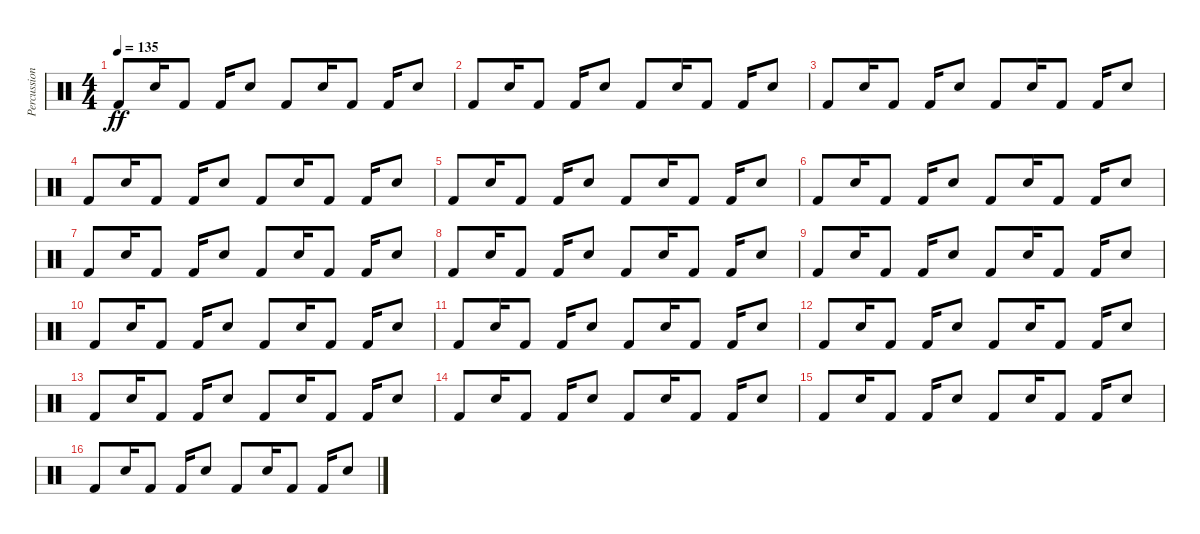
\track ("Percussion" "Percussion") {instrument percussion}
\staff {score}
\articulation defaults
\ts (4 4)
\tempo 135
\clef neutral
\ks c "Kick (hit) 2".8{dy ff} "Electric Snare (hit)".16 "Kick (hit) 2".8 "Kick (hit) 2".16 "Electric Snare (hit)".8 "Kick (hit) 2".8 "Electric Snare (hit)".16 "Kick (hit) 2".8 "Kick (hit) 2".16 "Electric Snare (hit)".8
|
"Kick (hit) 2".8 "Electric Snare (hit)".16 "Kick (hit) 2".8 "Kick (hit) 2".16 "Electric Snare (hit)".8 "Kick (hit) 2".8 "Electric Snare (hit)".16 "Kick (hit) 2".8 "Kick (hit) 2".16 "Electric Snare (hit)".8 |
"Kick (hit) 2".8 "Electric Snare (hit)".16 "Kick (hit) 2".8 "Kick (hit) 2".16 "Electric Snare (hit)".8 "Kick (hit) 2".8 "Electric Snare (hit)".16 "Kick (hit) 2".8 "Kick (hit) 2".16 "Electric Snare (hit)".8 |
"Kick (hit) 2".8 "Electric Snare (hit)".16 "Kick (hit) 2".8 "Kick (hit) 2".16 "Electric Snare (hit)".8 "Kick (hit) 2".8 "Electric Snare (hit)".16 "Kick (hit) 2".8 "Kick (hit) 2".16 "Electric Snare (hit)".8 |
"Kick (hit) 2".8 "Electric Snare (hit)".16 "Kick (hit) 2".8 "Kick (hit) 2".16 "Electric Snare (hit)".8 "Kick (hit) 2".8 "Electric Snare (hit)".16 "Kick (hit) 2".8 "Kick (hit) 2".16 "Electric Snare (hit)".8 |
"Kick (hit) 2".8 "Electric Snare (hit)".16 "Kick (hit) 2".8 "Kick (hit) 2".16 "Electric Snare (hit)".8 "Kick (hit) 2".8 "Electric Snare (hit)".16 "Kick (hit) 2".8 "Kick (hit) 2".16 "Electric Snare (hit)".8 |
"Kick (hit) 2".8 "Electric Snare (hit)".16 "Kick (hit) 2".8 "Kick (hit) 2".16 "Electric Snare (hit)".8 "Kick (hit) 2".8 "Electric Snare (hit)".16 "Kick (hit) 2".8 "Kick (hit) 2".16 "Electric Snare (hit)".8 |
"Kick (hit) 2".8 "Electric Snare (hit)".16 "Kick (hit) 2".8 "Kick (hit) 2".16 "Electric Snare (hit)".8 "Kick (hit) 2".8 "Electric Snare (hit)".16 "Kick (hit) 2".8 "Kick (hit) 2".16 "Electric Snare (hit)".8 |
"Kick (hit) 2".8 "Electric Snare (hit)".16 "Kick (hit) 2".8 "Kick (hit) 2".16 "Electric Snare (hit)".8 "Kick (hit) 2".8 "Electric Snare (hit)".16 "Kick (hit) 2".8 "Kick (hit) 2".16 "Electric Snare (hit)".8 |
"Kick (hit) 2".8 "Electric Snare (hit)".16 "Kick (hit) 2".8 "Kick (hit) 2".16 "Electric Snare (hit)".8 "Kick (hit) 2".8 "Electric Snare (hit)".16 "Kick (hit) 2".8 "Kick (hit) 2".16 "Electric Snare (hit)".8 |
"Kick (hit) 2".8 "Electric Snare (hit)".16 "Kick (hit) 2".8 "Kick (hit) 2".16 "Electric Snare (hit)".8 "Kick (hit) 2".8 "Electric Snare (hit)".16 "Kick (hit) 2".8 "Kick (hit) 2".16 "Electric Snare (hit)".8 |
"Kick (hit) 2".8 "Electric Snare (hit)".16 "Kick (hit) 2".8 "Kick (hit) 2".16 "Electric Snare (hit)".8 "Kick (hit) 2".8 "Electric Snare (hit)".16 "Kick (hit) 2".8 "Kick (hit) 2".16 "Electric Snare (hit)".8 |
"Kick (hit) 2".8 "Electric Snare (hit)".16 "Kick (hit) 2".8 "Kick (hit) 2".16 "Electric Snare (hit)".8 "Kick (hit) 2".8 "Electric Snare (hit)".16 "Kick (hit) 2".8 "Kick (hit) 2".16 "Electric Snare (hit)".8 |
"Kick (hit) 2".8 "Electric Snare (hit)".16 "Kick (hit) 2".8 "Kick (hit) 2".16 "Electric Snare (hit)".8 "Kick (hit) 2".8 "Electric Snare (hit)".16 "Kick (hit) 2".8 "Kick (hit) 2".16 "Electric Snare (hit)".8 |
"Kick (hit) 2".8 "Electric Snare (hit)".16 "Kick (hit) 2".8 "Kick (hit) 2".16 "Electric Snare (hit)".8 "Kick (hit) 2".8 "Electric Snare (hit)".16 "Kick (hit) 2".8 "Kick (hit) 2".16 "Electric Snare (hit)".8 |
"Kick (hit) 2".8 "Electric Snare (hit)".16 "Kick (hit) 2".8 "Kick (hit) 2".16 "Electric Snare (hit)".8 "Kick (hit) 2".8 "Electric Snare (hit)".16 "Kick (hit) 2".8 "Kick (hit) 2".16 "Electric Snare (hit)".8
